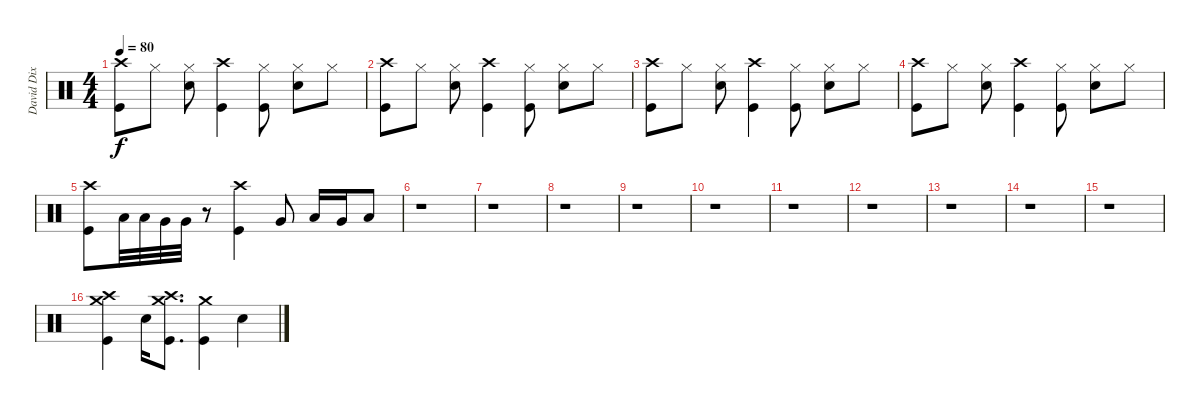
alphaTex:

\track ("David Dix Drums" "David Dix ") {instrument percussion}
\staff {score}
\articulation defaults
\ts (4 4)
\tempo 80
\clef neutral
\ks c
("Crash high (hit)" "Kick (hit)").8{dy f} "Hi-Hat (closed)".8 ("Hi-Hat (closed)" "Snare (hit) 2").8 ("Crash high (hit)" "Kick (hit)").4 ("Hi-Hat (closed)" "Kick (hit)").8 ("Hi-Hat (closed)" "Snare (hit) 2").8 "Hi-Hat (closed)".8 |
("Crash high (hit)" "Kick (hit)").8 "Hi-Hat (closed)".8 ("Hi-Hat (closed)" "Snare (hit) 2").8 ("Crash high (hit)" "Kick (hit)").4 ("Hi-Hat (closed)" "Kick (hit)").8 ("Hi-Hat (closed)" "Snare (hit) 2").8 "Hi-Hat (closed)".8 |
("Crash high (hit)" "Kick (hit)").8 "Hi-Hat (closed)".8 ("Hi-Hat (closed)" "Snare (hit) 2").8 ("Crash high (hit)" "Kick (hit)").4 ("Hi-Hat (closed)" "Kick (hit)").8 ("Hi-Hat (closed)" "Snare (hit) 2").8 "Hi-Hat (closed)".8 |
("Crash high (hit)" "Kick (hit)").8 "Hi-Hat (closed)".8 ("Hi-Hat (closed)" "Snare (hit) 2").8 ("Crash high (hit)" "Kick (hit)").4 ("Hi-Hat (closed)" "Kick (hit)").8 ("Hi-Hat (closed)" "Snare (hit) 2").8 "Hi-Hat (closed)".8 |
("Crash high (hit)" "Kick (hit)").8 "Low Tom (hit)".32 "Low Tom (hit)".32 "Very Low Tom (hit)".32 "Very Low Tom (hit)".32 r.8 ("Crash high (hit)" "Kick (hit)").4 "Very Low Tom (hit)".8 "Low Tom (hit)".16 "Very Low Tom (hit)".16 "Low Floor Tom (hit)".8 |
r.1 |
r.1 |
r.1 |
r.1 |
r.1 |
r.1 |
r.1 |
r.1 |
r.1 |
r.1 |
("Crash high (hit)" "Crash medium (hit)" "Kick (hit)").4{volume 14} "Snare (hit) 2".16 ("Crash high (hit)" "Crash medium (hit)" "Kick (hit)").8{d} ("Crash medium (hit)" "Kick (hit)").4 "Snare (hit) 2".4
